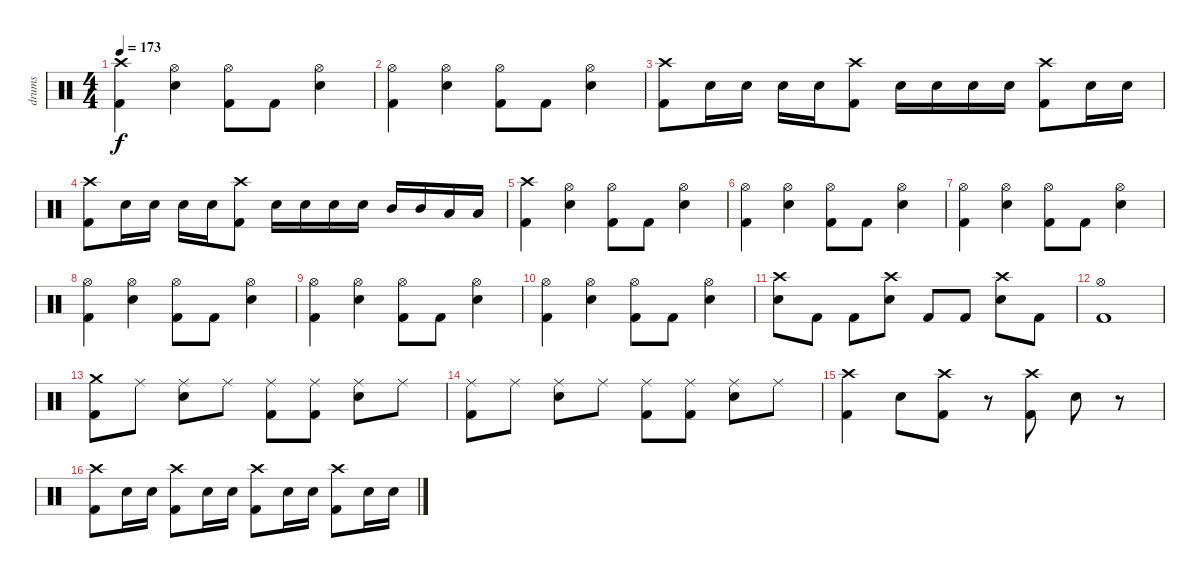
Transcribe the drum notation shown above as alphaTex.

\track ("drums" "drums") {instrument percussion}
\staff {score}
\articulation defaults
\ts (4 4)
\tempo 173
\clef neutral
\ks c
("Crash high (hit)" "Kick (hit) 2").4{dy f} ("Hi-Hat (open)" "Electric Snare (hit)").4 ("Hi-Hat (open)" "Kick (hit) 2").8 "Kick (hit) 2".8 ("Hi-Hat (open)" "Electric Snare (hit)").4 |
("Hi-Hat (open)" "Kick (hit) 2").4 ("Hi-Hat (open)" "Electric Snare (hit)").4 ("Hi-Hat (open)" "Kick (hit) 2").8 "Kick (hit) 2".8 ("Hi-Hat (open)" "Electric Snare (hit)").4 |
("Crash high (hit)" "Kick (hit) 2").8 "Electric Snare (hit)".16 "Electric Snare (hit)".16 "Electric Snare (hit)".16 "Electric Snare (hit)".16 ("Crash high (hit)" "Kick (hit) 2").8 "Electric Snare (hit)".16 "Electric Snare (hit)".16 "Electric Snare (hit)".16 "Electric Snare (hit)".16 ("Crash high (hit)" "Kick (hit) 2").8 "Electric Snare (hit)".16 "Electric Snare (hit)".16 |
("Crash high (hit)" "Kick (hit) 2").8 "Electric Snare (hit)".16 "Electric Snare (hit)".16 "Electric Snare (hit)".16 "Electric Snare (hit)".16 ("Crash high (hit)" "Kick (hit) 2").8 "Electric Snare (hit)".16 "Electric Snare (hit)".16 "Electric Snare (hit)".16 "Electric Snare (hit)".16 "Mid Tom (hit)".16 "Mid Tom (hit)".16 "Low Tom (hit)".16 "Low Tom (hit)".16 |
("Crash high (hit)" "Kick (hit) 2").4 ("Hi-Hat (open)" "Electric Snare (hit)").4 ("Hi-Hat (open)" "Kick (hit) 2").8 "Kick (hit) 2".8 ("Hi-Hat (open)" "Electric Snare (hit)").4 |
("Hi-Hat (open)" "Kick (hit) 2").4 ("Hi-Hat (open)" "Electric Snare (hit)").4 ("Hi-Hat (open)" "Kick (hit) 2").8 "Kick (hit) 2".8 ("Hi-Hat (open)" "Electric Snare (hit)").4 |
("Hi-Hat (open)" "Kick (hit) 2").4 ("Hi-Hat (open)" "Electric Snare (hit)").4 ("Hi-Hat (open)" "Kick (hit) 2").8 "Kick (hit) 2".8 ("Hi-Hat (open)" "Electric Snare (hit)").4 |
("Hi-Hat (open)" "Kick (hit) 2").4 ("Hi-Hat (open)" "Electric Snare (hit)").4 ("Hi-Hat (open)" "Kick (hit) 2").8 "Kick (hit) 2".8 ("Hi-Hat (open)" "Electric Snare (hit)").4 |
("Hi-Hat (open)" "Kick (hit) 2").4 ("Hi-Hat (open)" "Electric Snare (hit)").4 ("Hi-Hat (open)" "Kick (hit) 2").8 "Kick (hit) 2".8 ("Hi-Hat (open)" "Electric Snare (hit)").4 |
("Hi-Hat (open)" "Kick (hit) 2").4 ("Hi-Hat (open)" "Electric Snare (hit)").4 ("Hi-Hat (open)" "Kick (hit) 2").8 "Kick (hit) 2".8 ("Hi-Hat (open)" "Electric Snare (hit)").4 |
("Crash high (hit)" "Electric Snare (hit)").8 "Kick (hit) 2".8 "Kick (hit) 2".8 ("Crash high (hit)" "Electric Snare (hit)").8 "Kick (hit) 2".8 "Kick (hit) 2".8 ("Crash high (hit)" "Electric Snare (hit)").8 "Kick (hit) 2".8 |
("Hi-Hat (open)" "Kick (hit) 2").1 |
("Crash medium (hit)" "Kick (hit) 2").8 "Ride (middle)".8 ("Ride (middle)" "Electric Snare (hit)").8 "Ride (middle)".8 ("Ride (middle)" "Kick (hit) 2").8 ("Ride (middle)" "Kick (hit) 2").8 ("Ride (middle)" "Electric Snare (hit)").8 "Ride (middle)".8 |
("Ride (middle)" "Kick (hit) 2").8 "Ride (middle)".8 ("Ride (middle)" "Electric Snare (hit)").8 "Ride (middle)".8 ("Ride (middle)" "Kick (hit) 2").8 ("Ride (middle)" "Kick (hit) 2").8 ("Ride (middle)" "Electric Snare (hit)").8 "Ride (middle)".8 |
("Crash high (hit)" "Kick (hit) 2").4 "Electric Snare (hit)".8 ("Crash high (hit)" "Kick (hit) 2").8 r.8 ("Crash high (hit)" "Kick (hit) 2").8 "Electric Snare (hit)".8 r.8 |
("Crash high (hit)" "Kick (hit) 2").8 "Electric Snare (hit)".16 "Electric Snare (hit)".16 ("Crash high (hit)" "Kick (hit) 2").8 "Electric Snare (hit)".16 "Electric Snare (hit)".16 ("Crash high (hit)" "Kick (hit) 2").8 "Electric Snare (hit)".16 "Electric Snare (hit)".16 ("Crash high (hit)" "Kick (hit) 2").8 "Electric Snare (hit)".16 "Electric Snare (hit)".16
